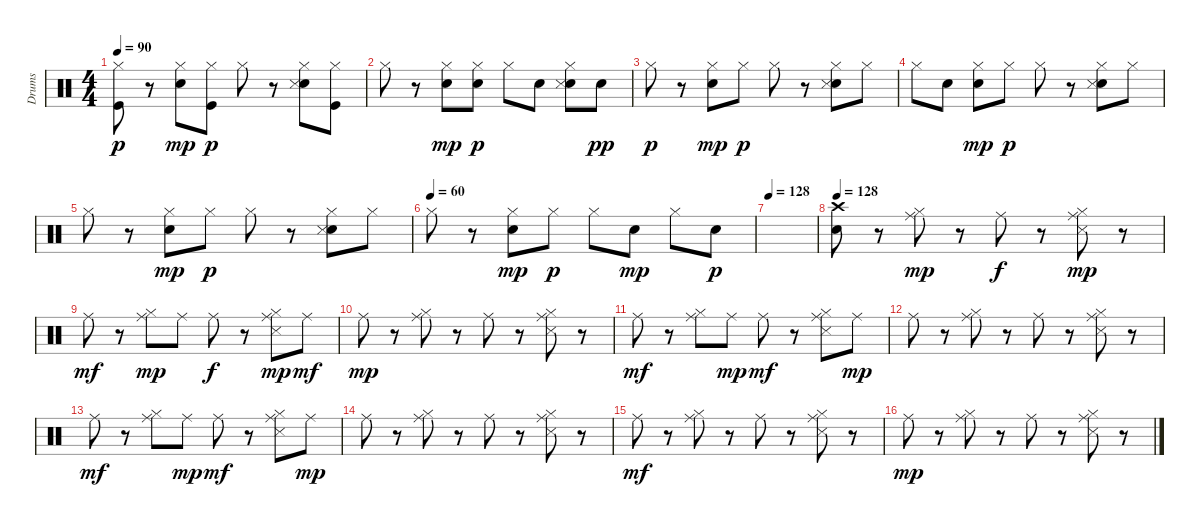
\track ("Drums" "Drums") {instrument percussion}
\staff {score}
\articulation defaults
\ts (4 4)
\tempo 90
\clef neutral
\ks c
("Kick (hit)" "Hi-Hat (closed)").8{dy p} r.8 ("Snare (hit) 2" "Hi-Hat (closed)").8{dy mp} ("Kick (hit)" "Hi-Hat (closed)").8{dy p} "Hi-Hat (closed)".8 r.8 ("Snare (hit) 2" "Hi-Hat (closed)" "Snare (side stick) 3").8 ("Kick (hit)" "Hi-Hat (closed)").8 |
"Hi-Hat (closed)".8 r.8 ("Snare (hit) 2" "Hi-Hat (closed)").8{dy mp} ("Snare (hit) 2" "Hi-Hat (closed)").8{dy p} "Hi-Hat (closed)".8 "Snare (hit) 2".8 ("Snare (hit) 2" "Hi-Hat (closed)" "Snare (side stick) 3").8 "Snare (hit) 2".8{dy pp} |
"Hi-Hat (closed)".8{dy p} r.8 ("Snare (hit) 2" "Hi-Hat (closed)").8{dy mp} "Hi-Hat (closed)".8{dy p} "Hi-Hat (closed)".8 r.8 ("Snare (hit) 2" "Hi-Hat (closed)" "Snare (side stick) 3").8 "Hi-Hat (closed)".8 |
"Hi-Hat (closed)".8 "Snare (hit) 2".8 ("Snare (hit) 2" "Hi-Hat (closed)").8{dy mp} "Hi-Hat (closed)".8{dy p} "Hi-Hat (closed)".8 r.8 ("Snare (hit) 2" "Hi-Hat (closed)" "Snare (side stick) 3").8 "Hi-Hat (closed)".8 |
"Hi-Hat (closed)".8 r.8 ("Snare (hit) 2" "Hi-Hat (closed)").8{dy mp} "Hi-Hat (closed)".8{dy p} "Hi-Hat (closed)".8 r.8 ("Snare (hit) 2" "Hi-Hat (closed)" "Snare (side stick) 3").8 "Hi-Hat (closed)".8 |
\tempo (60)
"Hi-Hat (closed)".8 r.8 ("Snare (hit) 2" "Hi-Hat (closed)").8{dy mp} "Hi-Hat (closed)".8{dy p} "Hi-Hat (closed)".8 "Snare (hit) 2".8{dy mp} "Hi-Hat (closed)".8 "Snare (hit) 2".8{dy p} |
\tempo 128
|
\tempo 128
("Snare (hit) 2" "Crash high (hit)").8 r.8 ("Hi-Hat (closed)" "Ride (middle)").8{dy mp} r.8 "Ride (middle)".8{dy f} r.8 ("Hi-Hat (closed)" "Snare (side stick) 3" "Ride (middle)").8{dy mp} r.8 |
"Ride (middle)".8{dy mf} r.8 ("Hi-Hat (closed)" "Ride (middle)").8{dy mp} "Ride (middle)".8 "Ride (middle)".8{dy f} r.8 ("Hi-Hat (closed)" "Snare (side stick) 3" "Ride (middle)").8{dy mp} "Ride (middle)".8{dy mf} |
"Ride (middle)".8{dy mp} r.8 ("Hi-Hat (closed)" "Ride (middle)").8 r.8 "Ride (middle)".8 r.8 ("Hi-Hat (closed)" "Snare (side stick) 3" "Ride (middle)").8 r.8 |
"Ride (middle)".8{dy mf} r.8 ("Hi-Hat (closed)" "Ride (middle)").8 "Ride (middle)".8{dy mp} "Ride (middle)".8{dy mf} r.8 ("Hi-Hat (closed)" "Snare (side stick) 3" "Ride (middle)").8 "Ride (middle)".8{dy mp} |
"Ride (middle)".8 r.8 ("Hi-Hat (closed)" "Ride (middle)").8 r.8 "Ride (middle)".8 r.8 ("Hi-Hat (closed)" "Snare (side stick) 3" "Ride (middle)").8 r.8 |
"Ride (middle)".8{dy mf} r.8 ("Hi-Hat (closed)" "Ride (middle)").8 "Ride (middle)".8{dy mp} "Ride (middle)".8{dy mf} r.8 ("Hi-Hat (closed)" "Snare (side stick) 3" "Ride (middle)").8 "Ride (middle)".8{dy mp} |
"Ride (middle)".8 r.8 ("Hi-Hat (closed)" "Ride (middle)").8 r.8 "Ride (middle)".8 r.8 ("Hi-Hat (closed)" "Snare (side stick) 3" "Ride (middle)").8 r.8 |
"Ride (middle)".8{dy mf} r.8 ("Hi-Hat (closed)" "Ride (middle)").8 r.8 "Ride (middle)".8 r.8 ("Hi-Hat (closed)" "Snare (side stick) 3" "Ride (middle)").8 r.8 |
"Ride (middle)".8{dy mp} r.8 ("Hi-Hat (closed)" "Ride (middle)").8 r.8 "Ride (middle)".8 r.8 ("Hi-Hat (closed)" "Snare (side stick) 3" "Ride (middle)").8 r.8
